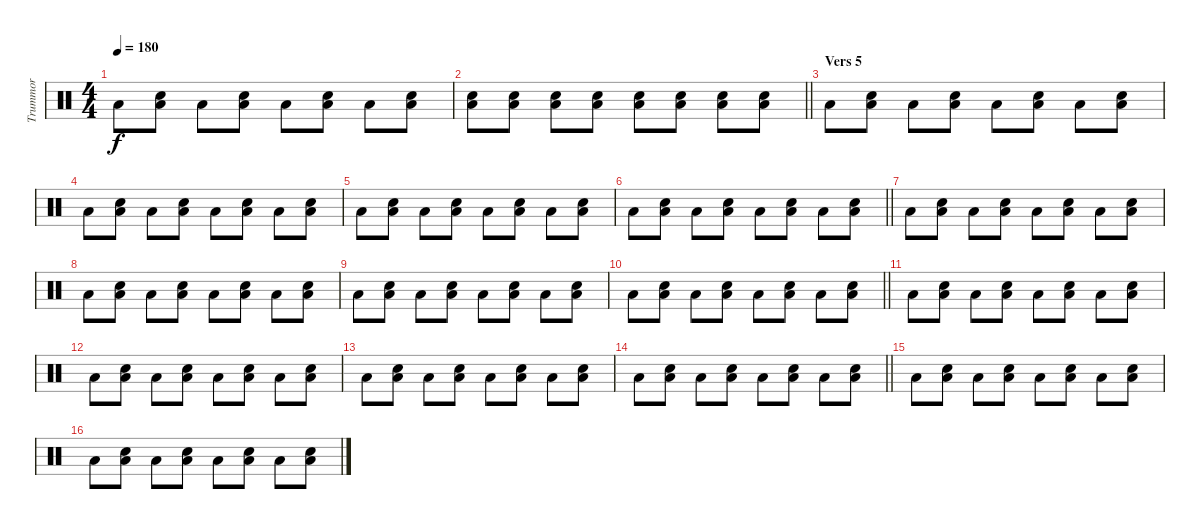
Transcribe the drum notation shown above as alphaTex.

\track ("Trummor" "Trummor") {instrument percussion}
\staff {score}
\articulation defaults
\ts (4 4)
\tempo 180
\clef neutral
\ks c "Low Tom (hit)".8{dy f}
("Low Tom (hit)" "Snare (hit) 2").8 "Low Tom (hit)".8 ("Low Tom (hit)" "Snare (hit) 2").8 "Low Tom (hit)".8 ("Low Tom (hit)" "Snare (hit) 2").8 "Low Tom (hit)".8 ("Low Tom (hit)" "Snare (hit) 2").8 |
\barLineRight lightlight
("Low Tom (hit)" "Snare (hit) 2").8 ("Low Tom (hit)" "Snare (hit) 2").8 ("Low Tom (hit)" "Snare (hit) 2").8 ("Low Tom (hit)" "Snare (hit) 2").8 ("Low Tom (hit)" "Snare (hit) 2").8 ("Low Tom (hit)" "Snare (hit) 2").8 ("Low Tom (hit)" "Snare (hit) 2").8 ("Low Tom (hit)" "Snare (hit) 2").8 |
\section ("" "Vers 5")
"Low Tom (hit)".8 ("Low Tom (hit)" "Snare (hit) 2").8 "Low Tom (hit)".8 ("Low Tom (hit)" "Snare (hit) 2").8 "Low Tom (hit)".8 ("Low Tom (hit)" "Snare (hit) 2").8 "Low Tom (hit)".8 ("Low Tom (hit)" "Snare (hit) 2").8 |
"Low Tom (hit)".8 ("Low Tom (hit)" "Snare (hit) 2").8 "Low Tom (hit)".8 ("Low Tom (hit)" "Snare (hit) 2").8 "Low Tom (hit)".8 ("Low Tom (hit)" "Snare (hit) 2").8 "Low Tom (hit)".8 ("Low Tom (hit)" "Snare (hit) 2").8 |
"Low Tom (hit)".8 ("Low Tom (hit)" "Snare (hit) 2").8 "Low Tom (hit)".8 ("Low Tom (hit)" "Snare (hit) 2").8 "Low Tom (hit)".8 ("Low Tom (hit)" "Snare (hit) 2").8 "Low Tom (hit)".8 ("Low Tom (hit)" "Snare (hit) 2").8 |
\barLineRight lightlight "Low Tom (hit)".8
("Low Tom (hit)" "Snare (hit) 2").8 "Low Tom (hit)".8 ("Low Tom (hit)" "Snare (hit) 2").8 "Low Tom (hit)".8 ("Low Tom (hit)" "Snare (hit) 2").8 "Low Tom (hit)".8 ("Low Tom (hit)" "Snare (hit) 2").8 |
"Low Tom (hit)".8 ("Low Tom (hit)" "Snare (hit) 2").8 "Low Tom (hit)".8 ("Low Tom (hit)" "Snare (hit) 2").8 "Low Tom (hit)".8 ("Low Tom (hit)" "Snare (hit) 2").8 "Low Tom (hit)".8 ("Low Tom (hit)" "Snare (hit) 2").8 |
"Low Tom (hit)".8 ("Low Tom (hit)" "Snare (hit) 2").8 "Low Tom (hit)".8 ("Low Tom (hit)" "Snare (hit) 2").8 "Low Tom (hit)".8 ("Low Tom (hit)" "Snare (hit) 2").8 "Low Tom (hit)".8 ("Low Tom (hit)" "Snare (hit) 2").8 |
"Low Tom (hit)".8 ("Low Tom (hit)" "Snare (hit) 2").8 "Low Tom (hit)".8 ("Low Tom (hit)" "Snare (hit) 2").8 "Low Tom (hit)".8 ("Low Tom (hit)" "Snare (hit) 2").8 "Low Tom (hit)".8 ("Low Tom (hit)" "Snare (hit) 2").8 |
\barLineRight lightlight "Low Tom (hit)".8
("Low Tom (hit)" "Snare (hit) 2").8 "Low Tom (hit)".8 ("Low Tom (hit)" "Snare (hit) 2").8 "Low Tom (hit)".8 ("Low Tom (hit)" "Snare (hit) 2").8 "Low Tom (hit)".8 ("Low Tom (hit)" "Snare (hit) 2").8 |
"Low Tom (hit)".8 ("Low Tom (hit)" "Snare (hit) 2").8 "Low Tom (hit)".8 ("Low Tom (hit)" "Snare (hit) 2").8 "Low Tom (hit)".8 ("Low Tom (hit)" "Snare (hit) 2").8 "Low Tom (hit)".8 ("Low Tom (hit)" "Snare (hit) 2").8 |
"Low Tom (hit)".8 ("Low Tom (hit)" "Snare (hit) 2").8 "Low Tom (hit)".8 ("Low Tom (hit)" "Snare (hit) 2").8 "Low Tom (hit)".8 ("Low Tom (hit)" "Snare (hit) 2").8 "Low Tom (hit)".8 ("Low Tom (hit)" "Snare (hit) 2").8 |
"Low Tom (hit)".8 ("Low Tom (hit)" "Snare (hit) 2").8 "Low Tom (hit)".8 ("Low Tom (hit)" "Snare (hit) 2").8 "Low Tom (hit)".8 ("Low Tom (hit)" "Snare (hit) 2").8 "Low Tom (hit)".8 ("Low Tom (hit)" "Snare (hit) 2").8 |
\barLineRight lightlight "Low Tom (hit)".8
("Low Tom (hit)" "Snare (hit) 2").8 "Low Tom (hit)".8 ("Low Tom (hit)" "Snare (hit) 2").8 "Low Tom (hit)".8 ("Low Tom (hit)" "Snare (hit) 2").8 "Low Tom (hit)".8 ("Low Tom (hit)" "Snare (hit) 2").8 |
"Low Tom (hit)".8 ("Low Tom (hit)" "Snare (hit) 2").8 "Low Tom (hit)".8 ("Low Tom (hit)" "Snare (hit) 2").8 "Low Tom (hit)".8 ("Low Tom (hit)" "Snare (hit) 2").8 "Low Tom (hit)".8 ("Low Tom (hit)" "Snare (hit) 2").8 |
"Low Tom (hit)".8 ("Low Tom (hit)" "Snare (hit) 2").8 "Low Tom (hit)".8 ("Low Tom (hit)" "Snare (hit) 2").8 "Low Tom (hit)".8 ("Low Tom (hit)" "Snare (hit) 2").8 "Low Tom (hit)".8 ("Low Tom (hit)" "Snare (hit) 2").8
